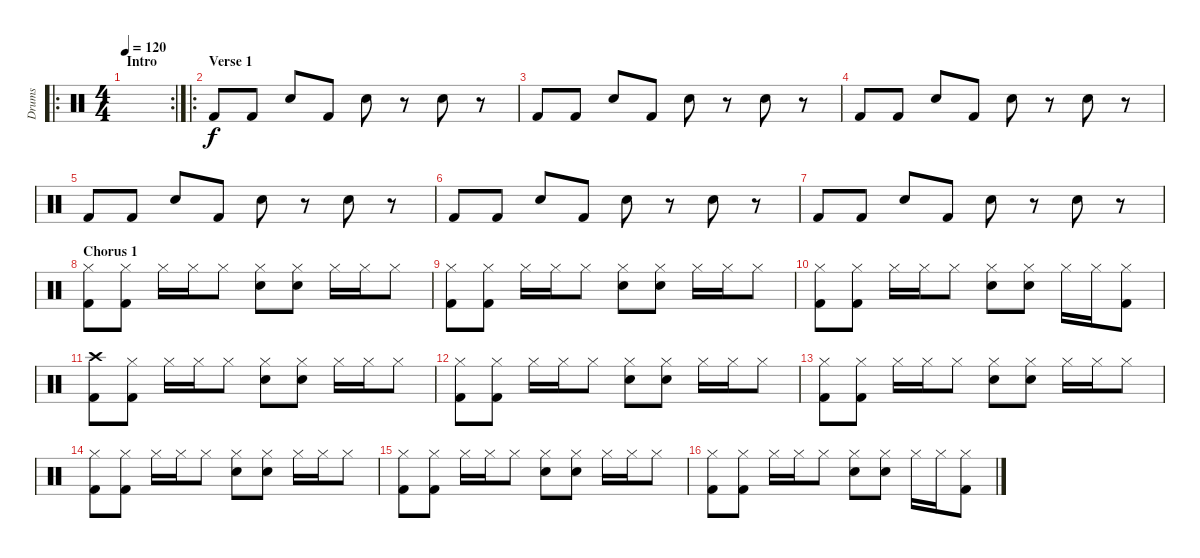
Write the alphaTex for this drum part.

\track ("Drums" "Drums") {instrument percussion}
\staff {score}
\articulation defaults
\ro
\rc 2
\ts (4 4)
\section ("" "Intro")
\tempo 120
\clef neutral
\ks c
|
\ro
\section ("" "Verse 1")
"Kick (hit) 2".8 "Kick (hit) 2".8 "Snare (hit) 2".8 "Kick (hit) 2".8 "Snare (hit) 2".8 r.8 "Snare (hit) 2".8 r.8 |
"Kick (hit) 2".8 "Kick (hit) 2".8 "Snare (hit) 2".8 "Kick (hit) 2".8 "Snare (hit) 2".8 r.8 "Snare (hit) 2".8 r.8 |
"Kick (hit) 2".8 "Kick (hit) 2".8 "Snare (hit) 2".8 "Kick (hit) 2".8 "Snare (hit) 2".8 r.8 "Snare (hit) 2".8 r.8 |
"Kick (hit) 2".8 "Kick (hit) 2".8 "Snare (hit) 2".8 "Kick (hit) 2".8 "Snare (hit) 2".8 r.8 "Snare (hit) 2".8 r.8 |
"Kick (hit) 2".8 "Kick (hit) 2".8 "Snare (hit) 2".8 "Kick (hit) 2".8 "Snare (hit) 2".8 r.8 "Snare (hit) 2".8 r.8 |
"Kick (hit) 2".8 "Kick (hit) 2".8 "Snare (hit) 2".8 "Kick (hit) 2".8 "Snare (hit) 2".8 r.8 "Snare (hit) 2".8 r.8 |
\section ("" "Chorus 1")
("Hi-Hat (closed)" "Kick (hit) 2").8 ("Hi-Hat (closed)" "Kick (hit) 2").8 "Hi-Hat (closed)".16 "Hi-Hat (closed)".16 "Hi-Hat (closed)".8 ("Hi-Hat (closed)" "Snare (hit) 2").8 ("Hi-Hat (closed)" "Snare (hit) 2").8 "Hi-Hat (closed)".16 "Hi-Hat (closed)".16 "Hi-Hat (closed)".8 |
("Hi-Hat (closed)" "Kick (hit) 2").8 ("Hi-Hat (closed)" "Kick (hit) 2").8 "Hi-Hat (closed)".16 "Hi-Hat (closed)".16 "Hi-Hat (closed)".8 ("Hi-Hat (closed)" "Snare (hit) 2").8 ("Hi-Hat (closed)" "Snare (hit) 2").8 "Hi-Hat (closed)".16 "Hi-Hat (closed)".16 "Hi-Hat (closed)".8 |
("Hi-Hat (closed)" "Kick (hit) 2").8 ("Hi-Hat (closed)" "Kick (hit) 2").8 "Hi-Hat (closed)".16 "Hi-Hat (closed)".16 "Hi-Hat (closed)".8 ("Hi-Hat (closed)" "Snare (hit) 2").8 ("Hi-Hat (closed)" "Snare (hit) 2").8 "Hi-Hat (closed)".16 "Hi-Hat (closed)".16 ("Hi-Hat (closed)" "Kick (hit) 2").8 |
("Crash high (hit)" "Kick (hit) 2").8 ("Hi-Hat (closed)" "Kick (hit) 2").8 "Hi-Hat (closed)".16 "Hi-Hat (closed)".16 "Hi-Hat (closed)".8 ("Hi-Hat (closed)" "Snare (hit) 2").8 ("Hi-Hat (closed)" "Snare (hit) 2").8 "Hi-Hat (closed)".16 "Hi-Hat (closed)".16 "Hi-Hat (closed)".8 |
("Hi-Hat (closed)" "Kick (hit) 2").8 ("Hi-Hat (closed)" "Kick (hit) 2").8 "Hi-Hat (closed)".16 "Hi-Hat (closed)".16 "Hi-Hat (closed)".8 ("Hi-Hat (closed)" "Snare (hit) 2").8 ("Hi-Hat (closed)" "Snare (hit) 2").8 "Hi-Hat (closed)".16 "Hi-Hat (closed)".16 "Hi-Hat (closed)".8 |
("Hi-Hat (closed)" "Kick (hit) 2").8 ("Hi-Hat (closed)" "Kick (hit) 2").8 "Hi-Hat (closed)".16 "Hi-Hat (closed)".16 "Hi-Hat (closed)".8 ("Hi-Hat (closed)" "Snare (hit) 2").8 ("Hi-Hat (closed)" "Snare (hit) 2").8 "Hi-Hat (closed)".16 "Hi-Hat (closed)".16 "Hi-Hat (closed)".8 |
("Hi-Hat (closed)" "Kick (hit) 2").8 ("Hi-Hat (closed)" "Kick (hit) 2").8 "Hi-Hat (closed)".16 "Hi-Hat (closed)".16 "Hi-Hat (closed)".8 ("Hi-Hat (closed)" "Snare (hit) 2").8 ("Hi-Hat (closed)" "Snare (hit) 2").8 "Hi-Hat (closed)".16 "Hi-Hat (closed)".16 "Hi-Hat (closed)".8 |
("Hi-Hat (closed)" "Kick (hit) 2").8 ("Hi-Hat (closed)" "Kick (hit) 2").8 "Hi-Hat (closed)".16 "Hi-Hat (closed)".16 "Hi-Hat (closed)".8 ("Hi-Hat (closed)" "Snare (hit) 2").8 ("Hi-Hat (closed)" "Snare (hit) 2").8 "Hi-Hat (closed)".16 "Hi-Hat (closed)".16 "Hi-Hat (closed)".8 |
("Hi-Hat (closed)" "Kick (hit) 2").8 ("Hi-Hat (closed)" "Kick (hit) 2").8 "Hi-Hat (closed)".16 "Hi-Hat (closed)".16 "Hi-Hat (closed)".8 ("Hi-Hat (closed)" "Snare (hit) 2").8 ("Hi-Hat (closed)" "Snare (hit) 2").8 "Hi-Hat (closed)".16 "Hi-Hat (closed)".16 ("Hi-Hat (closed)" "Kick (hit) 2").8
